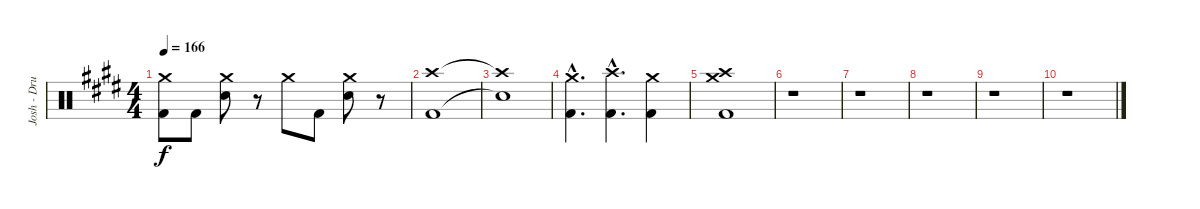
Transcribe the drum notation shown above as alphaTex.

\track ("Josh - Drums" "Josh - Dru") {instrument percussion}
\staff {score}
\articulation defaults
\ts (4 4)
\tempo 166
\clef neutral
\ks e
("Crash medium (hit)" "Kick (hit) 2").8{dy f} "Kick (hit) 2".8 ("Crash medium (hit)" "Electric Snare (hit)").8 r.8 "Crash medium (hit)".8 "Kick (hit) 2".8 ("Crash medium (hit)" "Electric Snare (hit)").8 r.8 |
("Crash high (hit)" "Kick (hit) 2").1 |
("Crash high (hit)"{t} "Snare (hit)"{t}).1 |
("Crash medium (hit)"{hac} "Kick (hit) 2"{hac}).4{d} ("Crash high (hit)"{hac} "Kick (hit) 2"{hac}).4{d} ("Crash medium (hit)" "Kick (hit) 2").4 |
("Crash high (hit)" "Crash medium (hit)" "Kick (hit) 2").1 |
r.1 |
r.1 |
r.1 |
r.1 |
r.1
